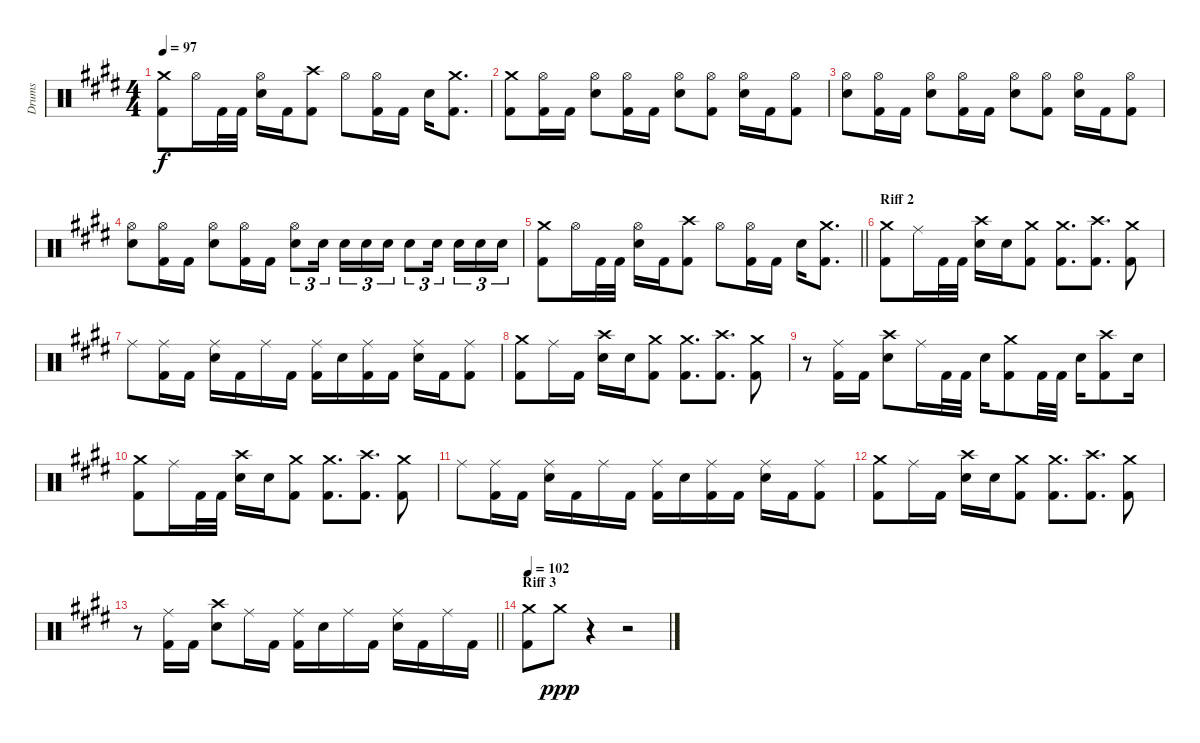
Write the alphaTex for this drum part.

\track ("Drums" "Drums") {instrument percussion}
\staff {score}
\articulation defaults
\ts (4 4)
\tempo 97
\clef neutral
\ks e
("Kick (hit) 2" "Crash medium (hit)").8{dy f} "Hi-Hat (open)".16 "Kick (hit) 2".32 "Kick (hit) 2".32 ("Hi-Hat (open)" "Electric Snare (hit)").16 "Kick (hit) 2".16 ("Crash high (hit)" "Kick (hit) 2").8 "Hi-Hat (open)".8 ("Kick (hit) 2" "Hi-Hat (open)").16 "Kick (hit) 2".16 "Electric Snare (hit)".16 ("Kick (hit) 2" "Crash medium (hit)").8{d} |
("Crash medium (hit)" "Kick (hit) 2").8 ("Hi-Hat (open)" "Kick (hit) 2").16 "Kick (hit) 2".16 ("Hi-Hat (open)" "Electric Snare (hit)").8 ("Hi-Hat (open)" "Kick (hit) 2").16 "Kick (hit) 2".16 ("Hi-Hat (open)" "Electric Snare (hit)").8 ("Kick (hit) 2" "Hi-Hat (open)").8 ("Electric Snare (hit)" "Hi-Hat (open)").16 "Kick (hit) 2".16 ("Kick (hit) 2" "Hi-Hat (open)").8 |
("Hi-Hat (open)" "Electric Snare (hit)").8 ("Hi-Hat (open)" "Kick (hit) 2").16 "Kick (hit) 2".16 ("Hi-Hat (open)" "Electric Snare (hit)").8 ("Hi-Hat (open)" "Kick (hit) 2").16 "Kick (hit) 2".16 ("Hi-Hat (open)" "Electric Snare (hit)").8 ("Kick (hit) 2" "Hi-Hat (open)").8 ("Electric Snare (hit)" "Hi-Hat (open)").16 "Kick (hit) 2".16 ("Kick (hit) 2" "Hi-Hat (open)").8 |
("Hi-Hat (open)" "Electric Snare (hit)").8 ("Hi-Hat (open)" "Kick (hit) 2").16 "Kick (hit) 2".16 ("Hi-Hat (open)" "Electric Snare (hit)").8 ("Hi-Hat (open)" "Kick (hit) 2").16 "Kick (hit) 2".16 ("Electric Snare (hit)" "Hi-Hat (open)").8{tu (3 2)} "Electric Snare (hit)".16{tu (3 2) beam splitsecondary} "Electric Snare (hit)".16{tu (3 2)} "Electric Snare (hit)".16{tu (3 2)} "Electric Snare (hit)".16{tu (3 2)} "Electric Snare (hit)".8{tu (3 2)} "Electric Snare (hit)".16{tu (3 2) beam splitsecondary} "Electric Snare (hit)".16{tu (3 2)} "Electric Snare (hit)".16{tu (3 2)} "Electric Snare (hit)".16{tu (3 2)} |
\barLineRight lightlight
("Kick (hit) 2" "Crash medium (hit)").8 "Hi-Hat (open)".16 "Kick (hit) 2".32 "Kick (hit) 2".32 ("Hi-Hat (open)" "Electric Snare (hit)").16 "Kick (hit) 2".16 ("Crash high (hit)" "Kick (hit) 2").8 "Hi-Hat (open)".8 ("Kick (hit) 2" "Hi-Hat (open)").16 "Kick (hit) 2".16 "Electric Snare (hit)".16 ("Kick (hit) 2" "Crash medium (hit)").8{d} |
\section ("" "Riff 2")
("Crash medium (hit)" "Kick (hit) 2").8 "Ride (middle)".16 "Kick (hit) 2".32 "Kick (hit) 2".32 ("Crash high (hit)" "Electric Snare (hit)").16 "Electric Snare (hit)".16 ("Kick (hit) 2" "Crash medium (hit)").8 ("Kick (hit) 2" "Crash medium (hit)").8{d} ("Kick (hit) 2" "Crash high (hit)").8{d} ("Kick (hit) 2" "Crash medium (hit)").8 |
"Ride (middle)".8 ("Kick (hit) 2" "Ride (middle)").16 "Kick (hit) 2".16 ("Electric Snare (hit)" "Ride (middle)").16 "Kick (hit) 2".16 "Ride (middle)".16 "Kick (hit) 2".16 ("Kick (hit) 2" "Ride (middle)").16 "Electric Snare (hit)".16 ("Kick (hit) 2" "Ride (middle)").16 "Kick (hit) 2".16 ("Electric Snare (hit)" "Ride (middle)").16 "Kick (hit) 2".16 ("Kick (hit) 2" "Ride (middle)").8 |
("Crash medium (hit)" "Kick (hit) 2").8 "Ride (middle)".16 "Kick (hit) 2".16 ("Crash high (hit)" "Electric Snare (hit)").16 "Electric Snare (hit)".16 ("Kick (hit) 2" "Crash medium (hit)").8 ("Kick (hit) 2" "Crash medium (hit)").8{d} ("Kick (hit) 2" "Crash high (hit)").8{d} ("Kick (hit) 2" "Crash medium (hit)").8 |
r.8 ("Kick (hit) 2" "Ride (middle)").16 "Kick (hit) 2".16 ("Electric Snare (hit)" "Crash high (hit)").8 "Ride (middle)".16 "Kick (hit) 2".32 "Kick (hit) 2".32 "Electric Snare (hit)".16 ("Kick (hit) 2" "Crash medium (hit)").8 "Kick (hit) 2".32 "Kick (hit) 2".32 "Electric Snare (hit)".16 ("Kick (hit) 2" "Crash high (hit)").8 "Electric Snare (hit)".16 |
("Crash medium (hit)" "Kick (hit) 2").8 "Ride (middle)".16 "Kick (hit) 2".32 "Kick (hit) 2".32 ("Crash high (hit)" "Electric Snare (hit)").16 "Electric Snare (hit)".16 ("Kick (hit) 2" "Crash medium (hit)").8 ("Kick (hit) 2" "Crash medium (hit)").8{d} ("Kick (hit) 2" "Crash high (hit)").8{d} ("Kick (hit) 2" "Crash medium (hit)").8 |
"Ride (middle)".8 ("Kick (hit) 2" "Ride (middle)").16 "Kick (hit) 2".16 ("Electric Snare (hit)" "Ride (middle)").16 "Kick (hit) 2".16 "Ride (middle)".16 "Kick (hit) 2".16 ("Kick (hit) 2" "Ride (middle)").16 "Electric Snare (hit)".16 ("Kick (hit) 2" "Ride (middle)").16 "Kick (hit) 2".16 ("Electric Snare (hit)" "Ride (middle)").16 "Kick (hit) 2".16 ("Kick (hit) 2" "Ride (middle)").8 |
("Crash medium (hit)" "Kick (hit) 2").8 "Ride (middle)".16 "Kick (hit) 2".16 ("Crash high (hit)" "Electric Snare (hit)").16 "Electric Snare (hit)".16 ("Kick (hit) 2" "Crash medium (hit)").8 ("Kick (hit) 2" "Crash medium (hit)").8{d} ("Kick (hit) 2" "Crash high (hit)").8{d} ("Kick (hit) 2" "Crash medium (hit)").8 |
\barLineRight lightlight
r.8 ("Kick (hit) 2" "Ride (middle)").16 "Kick (hit) 2".16 ("Electric Snare (hit)" "Crash high (hit)").8 "Ride (middle)".16 "Kick (hit) 2".16 ("Kick (hit) 2" "Ride (middle)").16 "Electric Snare (hit)".16 "Ride (middle)".16 "Kick (hit) 2".16 ("Electric Snare (hit)" "Ride (middle)").16 "Kick (hit) 2".16 "Ride (middle)".16 "Kick (hit) 2".16 |
\section ("" "Riff 3")
\tempo 102
("Kick (hit) 2" "Crash medium (hit)").8 "Crash medium (hit)".8{dy ppp} r.4 r.2
